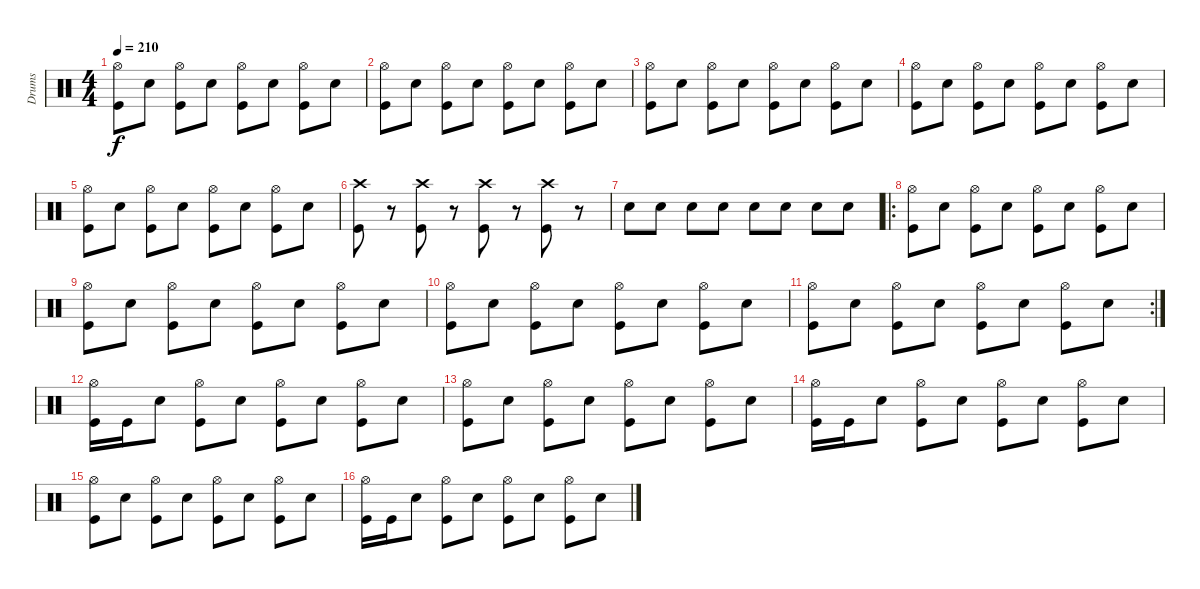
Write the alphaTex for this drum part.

\track ("Drums" "Drums") {instrument percussion}
\staff {score}
\articulation defaults
\ts (4 4)
\tempo 210
\clef neutral
\ks c
("Hi-Hat (open)" "Kick (hit)").8{dy f} "Electric Snare (hit)".8 ("Hi-Hat (open)" "Kick (hit)").8 "Electric Snare (hit)".8 ("Hi-Hat (open)" "Kick (hit)").8 "Electric Snare (hit)".8 ("Hi-Hat (open)" "Kick (hit)").8 "Electric Snare (hit)".8 |
("Hi-Hat (open)" "Kick (hit)").8 "Electric Snare (hit)".8 ("Hi-Hat (open)" "Kick (hit)").8 "Electric Snare (hit)".8 ("Hi-Hat (open)" "Kick (hit)").8 "Electric Snare (hit)".8 ("Hi-Hat (open)" "Kick (hit)").8 "Electric Snare (hit)".8 |
("Hi-Hat (open)" "Kick (hit)").8 "Electric Snare (hit)".8 ("Hi-Hat (open)" "Kick (hit)").8 "Electric Snare (hit)".8 ("Hi-Hat (open)" "Kick (hit)").8 "Electric Snare (hit)".8 ("Hi-Hat (open)" "Kick (hit)").8 "Electric Snare (hit)".8 |
("Hi-Hat (open)" "Kick (hit)").8 "Electric Snare (hit)".8 ("Hi-Hat (open)" "Kick (hit)").8 "Electric Snare (hit)".8 ("Hi-Hat (open)" "Kick (hit)").8 "Electric Snare (hit)".8 ("Hi-Hat (open)" "Kick (hit)").8 "Electric Snare (hit)".8 |
("Hi-Hat (open)" "Kick (hit)").8 "Electric Snare (hit)".8 ("Hi-Hat (open)" "Kick (hit)").8 "Electric Snare (hit)".8 ("Hi-Hat (open)" "Kick (hit)").8 "Electric Snare (hit)".8 ("Hi-Hat (open)" "Kick (hit)").8 "Electric Snare (hit)".8 |
("Crash high (hit)" "Kick (hit)").8 r.8 ("Crash high (hit)" "Kick (hit)").8 r.8 ("Crash high (hit)" "Kick (hit)").8 r.8 ("Crash high (hit)" "Kick (hit)").8 r.8 |
"Electric Snare (hit)".8{beam merge} "Electric Snare (hit)".8 "Electric Snare (hit)".8 "Electric Snare (hit)".8 "Electric Snare (hit)".8 "Electric Snare (hit)".8 "Electric Snare (hit)".8 "Electric Snare (hit)".8 |
\ro
("Hi-Hat (open)" "Kick (hit)").8 "Electric Snare (hit)".8 ("Hi-Hat (open)" "Kick (hit)").8 "Electric Snare (hit)".8 ("Hi-Hat (open)" "Kick (hit)").8 "Electric Snare (hit)".8 ("Hi-Hat (open)" "Kick (hit)").8 "Electric Snare (hit)".8 |
("Hi-Hat (open)" "Kick (hit)").8 "Electric Snare (hit)".8 ("Hi-Hat (open)" "Kick (hit)").8 "Electric Snare (hit)".8 ("Hi-Hat (open)" "Kick (hit)").8 "Electric Snare (hit)".8 ("Hi-Hat (open)" "Kick (hit)").8 "Electric Snare (hit)".8 |
("Hi-Hat (open)" "Kick (hit)").8 "Electric Snare (hit)".8 ("Hi-Hat (open)" "Kick (hit)").8 "Electric Snare (hit)".8 ("Hi-Hat (open)" "Kick (hit)").8 "Electric Snare (hit)".8 ("Hi-Hat (open)" "Kick (hit)").8 "Electric Snare (hit)".8 |
\rc 2
("Hi-Hat (open)" "Kick (hit)").8 "Electric Snare (hit)".8 ("Hi-Hat (open)" "Kick (hit)").8 "Electric Snare (hit)".8 ("Hi-Hat (open)" "Kick (hit)").8 "Electric Snare (hit)".8 ("Hi-Hat (open)" "Kick (hit)").8 "Electric Snare (hit)".8 |
("Hi-Hat (open)" "Kick (hit)").16 "Kick (hit)".16{beam merge} "Electric Snare (hit)".8 ("Hi-Hat (open)" "Kick (hit)").8 "Electric Snare (hit)".8 ("Hi-Hat (open)" "Kick (hit)").8 "Electric Snare (hit)".8 ("Hi-Hat (open)" "Kick (hit)").8 "Electric Snare (hit)".8 |
("Hi-Hat (open)" "Kick (hit)").8 "Electric Snare (hit)".8 ("Hi-Hat (open)" "Kick (hit)").8 "Electric Snare (hit)".8 ("Hi-Hat (open)" "Kick (hit)").8 "Electric Snare (hit)".8 ("Hi-Hat (open)" "Kick (hit)").8 "Electric Snare (hit)".8 |
("Hi-Hat (open)" "Kick (hit)").16 "Kick (hit)".16{beam merge} "Electric Snare (hit)".8 ("Hi-Hat (open)" "Kick (hit)").8 "Electric Snare (hit)".8 ("Hi-Hat (open)" "Kick (hit)").8 "Electric Snare (hit)".8 ("Hi-Hat (open)" "Kick (hit)").8 "Electric Snare (hit)".8 |
("Hi-Hat (open)" "Kick (hit)").8 "Electric Snare (hit)".8 ("Hi-Hat (open)" "Kick (hit)").8 "Electric Snare (hit)".8 ("Hi-Hat (open)" "Kick (hit)").8 "Electric Snare (hit)".8 ("Hi-Hat (open)" "Kick (hit)").8 "Electric Snare (hit)".8 |
("Hi-Hat (open)" "Kick (hit)").16 "Kick (hit)".16{beam merge} "Electric Snare (hit)".8 ("Hi-Hat (open)" "Kick (hit)").8 "Electric Snare (hit)".8 ("Hi-Hat (open)" "Kick (hit)").8 "Electric Snare (hit)".8 ("Hi-Hat (open)" "Kick (hit)").8 "Electric Snare (hit)".8
